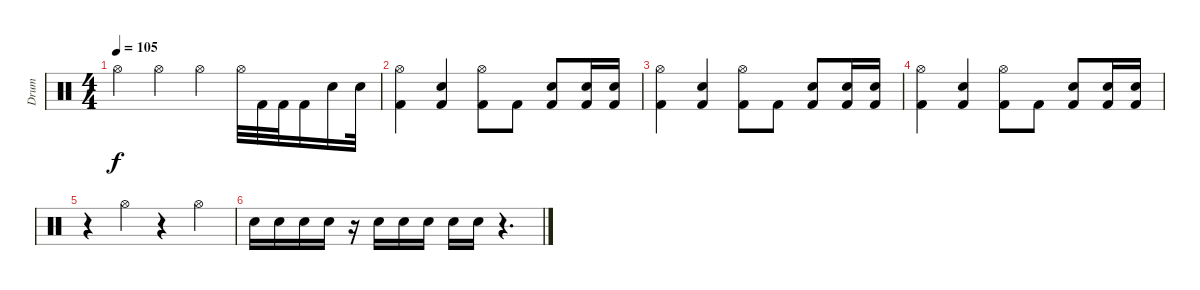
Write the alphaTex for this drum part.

\track ("Drum" "Drum") {instrument percussion}
\staff {score}
\articulation defaults
\ts (4 4)
\tempo 105
\clef neutral
\ks c "Hi-Hat (open)".4{dy f} "Hi-Hat (open)".4 "Hi-Hat (open)".4 "Hi-Hat (open)".32 "Kick (hit) 2".32 "Kick (hit) 2".32 "Kick (hit) 2".16 "Snare (hit) 2".16 "Snare (hit) 2".32
|
("Hi-Hat (open)" "Kick (hit) 2").4 ("Snare (hit) 2" "Kick (hit) 2").4 ("Hi-Hat (open)" "Kick (hit) 2").8 "Kick (hit) 2".8 ("Snare (hit) 2" "Kick (hit) 2").8 ("Snare (hit) 2" "Kick (hit) 2").16 ("Snare (hit) 2" "Kick (hit) 2").16 |
("Hi-Hat (open)" "Kick (hit) 2").4 ("Snare (hit) 2" "Kick (hit) 2").4 ("Hi-Hat (open)" "Kick (hit) 2").8 "Kick (hit) 2".8 ("Snare (hit) 2" "Kick (hit) 2").8 ("Snare (hit) 2" "Kick (hit) 2").16 ("Snare (hit) 2" "Kick (hit) 2").16 |
("Hi-Hat (open)" "Kick (hit) 2").4 ("Snare (hit) 2" "Kick (hit) 2").4 ("Hi-Hat (open)" "Kick (hit) 2").8 "Kick (hit) 2".8 ("Snare (hit) 2" "Kick (hit) 2").8 ("Snare (hit) 2" "Kick (hit) 2").16 ("Snare (hit) 2" "Kick (hit) 2").16 |
r.4 "Hi-Hat (open)".4 r.4 "Hi-Hat (open)".4 |
"Electric Snare (hit)".16 "Electric Snare (hit)".16 "Electric Snare (hit)".16 "Electric Snare (hit)".16 r.16 "Electric Snare (hit)".16 "Electric Snare (hit)".16 "Electric Snare (hit)".16 "Electric Snare (hit)".16 "Electric Snare (hit)".16 r.4{d}
